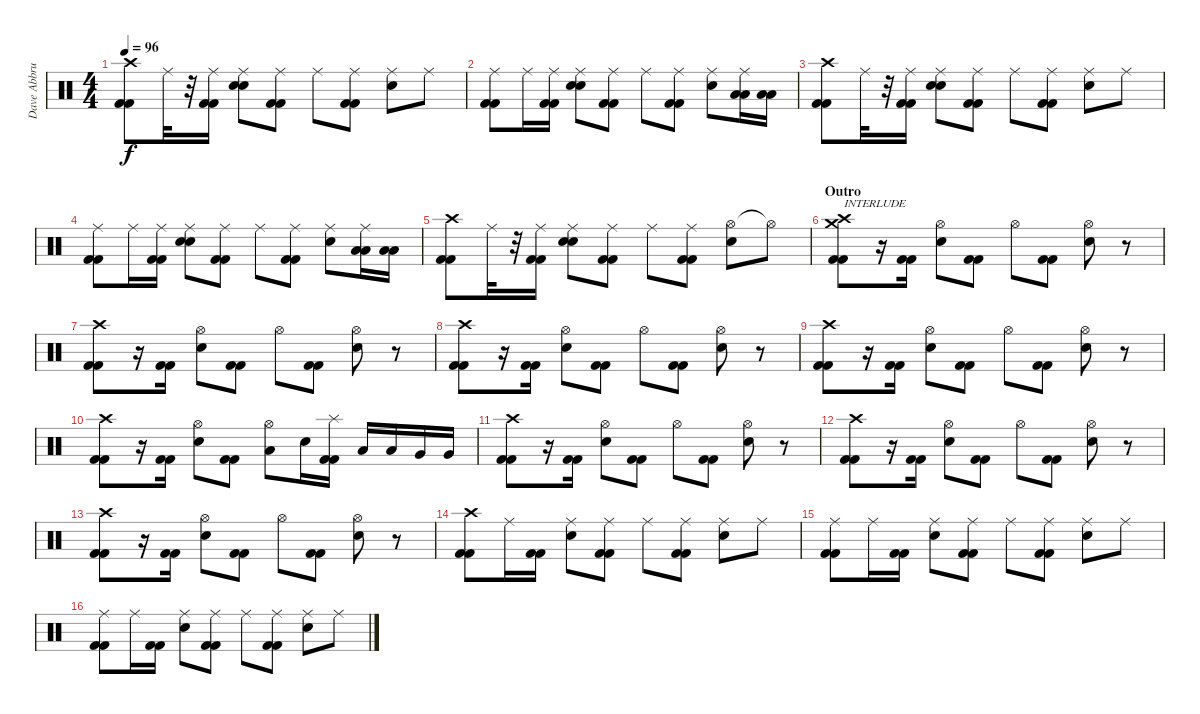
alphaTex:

\track ("Dave Abbruzzese" "Dave Abbru") {instrument percussion}
\staff {score}
\articulation defaults
\ts (4 4)
\tempo 96
\clef neutral
\ks c
("Crash high (hit)" "Kick (hit) 2" "Kick (hit) 2").8{dy f} "Ride (middle)".32 r.32 ("Ride (middle)" "Kick (hit) 2" "Kick (hit) 2").16 ("Ride (middle)" "Electric Snare (hit)" "Electric Snare (hit)").8 ("Ride (middle)" "Kick (hit) 2" "Kick (hit) 2").8 "Ride (middle)".8 ("Ride (middle)" "Kick (hit) 2" "Kick (hit) 2").8 ("Ride (middle)" "Electric Snare (hit)").8 "Ride (middle)".8 |
("Ride (middle)" "Kick (hit) 2" "Kick (hit) 2").8 "Ride (middle)".16 ("Ride (middle)" "Kick (hit) 2" "Kick (hit) 2").16 ("Ride (middle)" "Electric Snare (hit)" "Electric Snare (hit)").8 ("Ride (middle)" "Kick (hit) 2" "Kick (hit) 2").8 "Ride (middle)".8 ("Ride (middle)" "Kick (hit) 2" "Kick (hit) 2").8 ("Ride (middle)" "Electric Snare (hit)").8 ("Ride (middle)" "Low Tom (hit)" "Low Tom (hit)").16 ("Low Tom (hit)" "Low Tom (hit)").16 |
("Crash high (hit)" "Kick (hit) 2" "Kick (hit) 2").8 "Ride (middle)".32 r.32 ("Ride (middle)" "Kick (hit) 2" "Kick (hit) 2").16 ("Ride (middle)" "Electric Snare (hit)" "Electric Snare (hit)").8 ("Ride (middle)" "Kick (hit) 2" "Kick (hit) 2").8 "Ride (middle)".8 ("Ride (middle)" "Kick (hit) 2" "Kick (hit) 2").8 ("Ride (middle)" "Electric Snare (hit)").8 "Ride (middle)".8 |
("Ride (middle)" "Kick (hit) 2" "Kick (hit) 2").8 "Ride (middle)".16 ("Ride (middle)" "Kick (hit) 2" "Kick (hit) 2").16 ("Ride (middle)" "Electric Snare (hit)" "Electric Snare (hit)").8 ("Ride (middle)" "Kick (hit) 2" "Kick (hit) 2").8 "Ride (middle)".8 ("Ride (middle)" "Kick (hit) 2" "Kick (hit) 2").8 ("Ride (middle)" "Electric Snare (hit)").8 ("Ride (middle)" "Low Tom (hit)" "Low Tom (hit)").16 ("Low Tom (hit)" "Low Tom (hit)").16 |
("Crash high (hit)" "Kick (hit) 2" "Kick (hit) 2").8 "Ride (middle)".32 r.32 ("Ride (middle)" "Kick (hit) 2" "Kick (hit) 2").16 ("Ride (middle)" "Electric Snare (hit)" "Electric Snare (hit)").8 ("Ride (middle)" "Kick (hit) 2" "Kick (hit) 2").8 "Ride (middle)".8 ("Ride (middle)" "Kick (hit) 2" "Kick (hit) 2").8 ("Hi-Hat (open)" "Electric Snare (hit)").8 "Hi-Hat (open)"{t}.8 |
\section ("" "Outro")
("Crash medium (hit)" "Crash high (hit)" "Kick (hit) 2" "Kick (hit) 2").8{txt "INTERLUDE"} r.16 ("Kick (hit) 2" "Kick (hit) 2").16 ("Hi-Hat (open)" "Electric Snare (hit)").8 ("Kick (hit) 2" "Kick (hit) 2").8 "Hi-Hat (open)".8 ("Kick (hit) 2" "Kick (hit) 2").8 ("Hi-Hat (open)" "Electric Snare (hit)").8 r.8 |
("Crash high (hit)" "Kick (hit) 2" "Kick (hit) 2").8 r.16 ("Kick (hit) 2" "Kick (hit) 2").16 ("Hi-Hat (open)" "Electric Snare (hit)").8 ("Kick (hit) 2" "Kick (hit) 2").8 "Hi-Hat (open)".8 ("Kick (hit) 2" "Kick (hit) 2").8 ("Hi-Hat (open)" "Electric Snare (hit)").8 r.8 |
("Crash high (hit)" "Kick (hit) 2" "Kick (hit) 2").8 r.16 ("Kick (hit) 2" "Kick (hit) 2").16 ("Hi-Hat (open)" "Electric Snare (hit)").8 ("Kick (hit) 2" "Kick (hit) 2").8 "Hi-Hat (open)".8 ("Kick (hit) 2" "Kick (hit) 2").8 ("Hi-Hat (open)" "Electric Snare (hit)").8 r.8 |
("Crash high (hit)" "Kick (hit) 2" "Kick (hit) 2").8 r.16 ("Kick (hit) 2" "Kick (hit) 2").16 ("Hi-Hat (open)" "Electric Snare (hit)").8 ("Kick (hit) 2" "Kick (hit) 2").8 "Hi-Hat (open)".8 ("Kick (hit) 2" "Kick (hit) 2").8 ("Hi-Hat (open)" "Electric Snare (hit)").8 r.8 |
("Crash high (hit)" "Kick (hit) 2" "Kick (hit) 2").8 r.16 ("Kick (hit) 2" "Kick (hit) 2").16 ("Hi-Hat (open)" "Electric Snare (hit)").8 ("Kick (hit) 2" "Kick (hit) 2").8 ("Hi-Hat (open)" "Low Tom (hit)").8 "Electric Snare (hit)".16 ("Splash (hit)" "Kick (hit) 2" "Kick (hit) 2").16 "Low Tom (hit)".16 "Low Tom (hit)".16 "Very Low Tom (hit)".16 "Very Low Tom (hit)".16 |
("Crash high (hit)" "Kick (hit) 2" "Kick (hit) 2").8 r.16 ("Kick (hit) 2" "Kick (hit) 2").16 ("Hi-Hat (open)" "Electric Snare (hit)").8 ("Kick (hit) 2" "Kick (hit) 2").8 "Hi-Hat (open)".8 ("Kick (hit) 2" "Kick (hit) 2").8 ("Hi-Hat (open)" "Electric Snare (hit)").8 r.8 |
("Crash high (hit)" "Kick (hit) 2" "Kick (hit) 2").8 r.16 ("Kick (hit) 2" "Kick (hit) 2").16 ("Hi-Hat (open)" "Electric Snare (hit)").8 ("Kick (hit) 2" "Kick (hit) 2").8 "Hi-Hat (open)".8 ("Kick (hit) 2" "Kick (hit) 2").8 ("Hi-Hat (open)" "Electric Snare (hit)").8 r.8 |
("Crash high (hit)" "Kick (hit) 2" "Kick (hit) 2").8 r.16 ("Kick (hit) 2" "Kick (hit) 2").16 ("Hi-Hat (open)" "Electric Snare (hit)").8 ("Kick (hit) 2" "Kick (hit) 2").8 "Hi-Hat (open)".8 ("Kick (hit) 2" "Kick (hit) 2").8 ("Hi-Hat (open)" "Electric Snare (hit)").8 r.8 |
("Crash high (hit)" "Kick (hit) 2" "Kick (hit) 2").8 "Ride (middle)".16 ("Kick (hit) 2" "Kick (hit) 2").16 ("Ride (middle)" "Electric Snare (hit)").8 ("Ride (middle)" "Kick (hit) 2" "Kick (hit) 2").8 "Ride (middle)".8 ("Ride (middle)" "Kick (hit) 2" "Kick (hit) 2").8 ("Ride (middle)" "Electric Snare (hit)").8 "Ride (middle)".8 |
("Ride (middle)" "Kick (hit) 2" "Kick (hit) 2").8 "Ride (middle)".16 ("Kick (hit) 2" "Kick (hit) 2").16 ("Ride (middle)" "Electric Snare (hit)").8 ("Ride (middle)" "Kick (hit) 2" "Kick (hit) 2").8 "Ride (middle)".8 ("Ride (middle)" "Kick (hit) 2" "Kick (hit) 2").8 ("Ride (middle)" "Electric Snare (hit)").8 "Ride (middle)".8 |
("Ride (middle)" "Kick (hit) 2" "Kick (hit) 2").8 "Ride (middle)".16 ("Kick (hit) 2" "Kick (hit) 2").16 ("Ride (middle)" "Electric Snare (hit)").8 ("Ride (middle)" "Kick (hit) 2" "Kick (hit) 2").8 "Ride (middle)".8 ("Ride (middle)" "Kick (hit) 2" "Kick (hit) 2").8 ("Ride (middle)" "Electric Snare (hit)").8 "Ride (middle)".8
